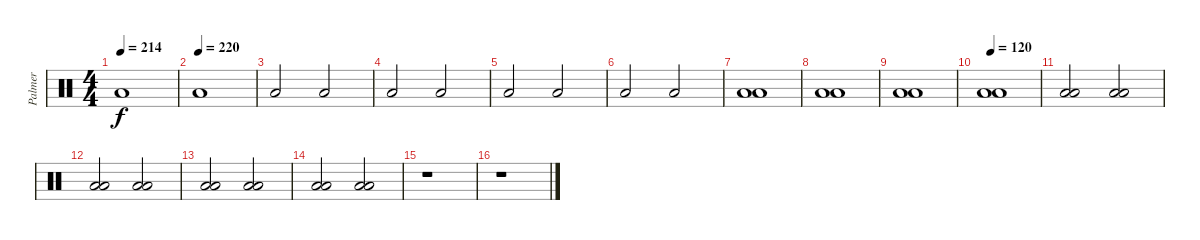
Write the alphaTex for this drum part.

\track ("Palmer" "Palmer") {instrument percussion}
\staff {score}
\articulation defaults
\ts (4 4)
\tempo 214
\clef neutral
\ks c "Low Tom (hit)".1{dy f}
|
\tempo (220)
"Low Tom (hit)".1 |
"Low Tom (hit)".2 "Low Tom (hit)".2 |
"Low Tom (hit)".2 "Low Tom (hit)".2 |
"Low Tom (hit)".2 "Low Tom (hit)".2 |
"Low Tom (hit)".2 "Low Tom (hit)".2 |
("Low Tom (hit)" "Low Floor Tom (hit)").1 |
("Low Tom (hit)" "Low Floor Tom (hit)").1 |
("Low Tom (hit)" "Low Floor Tom (hit)").1 |
\tempo 120
("Low Tom (hit)" "Low Floor Tom (hit)").1 |
("Low Tom (hit)" "Low Floor Tom (hit)").2 ("Low Tom (hit)" "Low Floor Tom (hit)").2 |
("Low Tom (hit)" "Low Floor Tom (hit)").2 ("Low Tom (hit)" "Low Floor Tom (hit)").2 |
("Low Tom (hit)" "Low Floor Tom (hit)").2 ("Low Tom (hit)" "Low Floor Tom (hit)").2 |
("Low Tom (hit)" "Low Floor Tom (hit)").2 ("Low Tom (hit)" "Low Floor Tom (hit)").2 |
r.1 |
r.1
